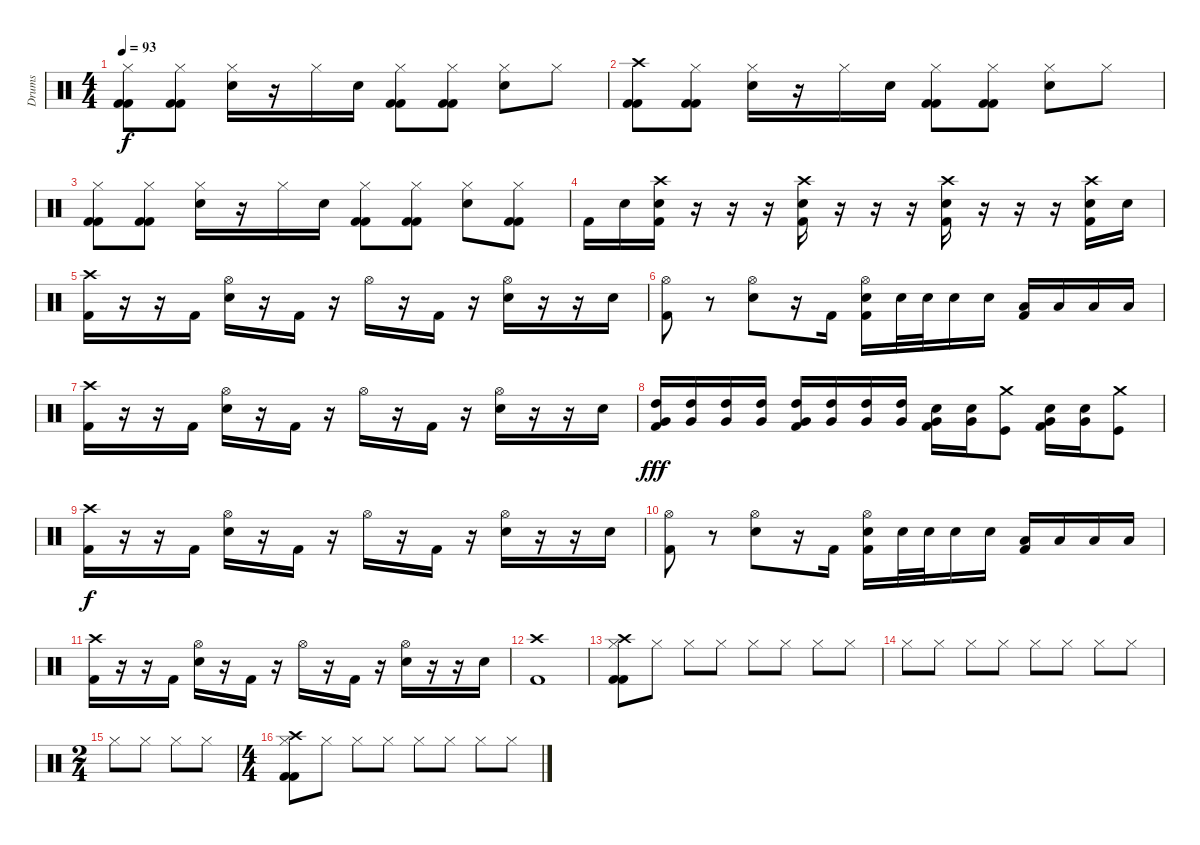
\track ("Drums" "Drums") {instrument percussion}
\staff {score}
\articulation defaults
\ts (4 4)
\tempo 93
\clef neutral
\ks c
("Hi-Hat (closed)" "Kick (hit) 2" "Kick (hit) 2").8{dy f} ("Hi-Hat (closed)" "Kick (hit) 2" "Kick (hit) 2").8 ("Hi-Hat (closed)" "Electric Snare (hit)").16 r.16 "Hi-Hat (closed)".16 "Electric Snare (hit)".16 ("Hi-Hat (closed)" "Kick (hit) 2" "Kick (hit) 2").8 ("Hi-Hat (closed)" "Kick (hit) 2" "Kick (hit) 2").8 ("Hi-Hat (closed)" "Electric Snare (hit)").8 "Hi-Hat (closed)".8 |
("Crash high (hit)" "Kick (hit) 2" "Kick (hit) 2").8 ("Hi-Hat (closed)" "Kick (hit) 2" "Kick (hit) 2").8 ("Hi-Hat (closed)" "Electric Snare (hit)").16 r.16 "Hi-Hat (closed)".16 "Electric Snare (hit)".16 ("Hi-Hat (closed)" "Kick (hit) 2" "Kick (hit) 2").8 ("Hi-Hat (closed)" "Kick (hit) 2" "Kick (hit) 2").8 ("Hi-Hat (closed)" "Electric Snare (hit)").8 "Hi-Hat (closed)".8 |
("Hi-Hat (closed)" "Kick (hit) 2" "Kick (hit) 2").8 ("Hi-Hat (closed)" "Kick (hit) 2" "Kick (hit) 2").8 ("Hi-Hat (closed)" "Electric Snare (hit)").16 r.16 "Hi-Hat (closed)".16 "Electric Snare (hit)".16 ("Hi-Hat (closed)" "Kick (hit) 2" "Kick (hit) 2").8 ("Hi-Hat (closed)" "Kick (hit) 2" "Kick (hit) 2").8 ("Hi-Hat (closed)" "Electric Snare (hit)").8 ("Hi-Hat (closed)" "Kick (hit) 2" "Kick (hit) 2").8 |
"Kick (hit) 2".16 "Electric Snare (hit)".16 ("Crash high (hit)" "Electric Snare (hit)" "Kick (hit) 2").16 r.16 r.16 r.16 ("Crash high (hit)" "Electric Snare (hit)" "Kick (hit) 2").16 r.16 r.16 r.16 ("Crash high (hit)" "Electric Snare (hit)" "Kick (hit) 2").16 r.16 r.16 r.16 ("Crash high (hit)" "Electric Snare (hit)" "Kick (hit) 2").16 "Electric Snare (hit)".16 |
("Crash high (hit)" "Kick (hit) 2").16 r.16 r.16 "Kick (hit) 2".16 ("Hi-Hat (open)" "Electric Snare (hit)").16 r.16 "Kick (hit) 2".16 r.16 "Hi-Hat (open)".16 r.16 "Kick (hit) 2".16 r.16 ("Hi-Hat (open)" "Electric Snare (hit)").16 r.16 r.16 "Electric Snare (hit)".16 |
("Hi-Hat (open)" "Kick (hit) 2").8 r.8 ("Hi-Hat (open)" "Electric Snare (hit)").8 r.16 "Kick (hit) 2".16 ("Hi-Hat (open)" "Electric Snare (hit)" "Kick (hit) 2").16 "Electric Snare (hit)".32 "Electric Snare (hit)".32 "Electric Snare (hit)".16 "Electric Snare (hit)".16 ("Low Tom (hit)" "Kick (hit) 2").16 "Low Tom (hit)".16 "Low Tom (hit)".16 "Low Tom (hit)".16 |
("Crash high (hit)" "Kick (hit) 2").16 r.16 r.16 "Kick (hit) 2".16 ("Hi-Hat (open)" "Electric Snare (hit)").16 r.16 "Kick (hit) 2".16 r.16 "Hi-Hat (open)".16 r.16 "Kick (hit) 2".16 r.16 ("Hi-Hat (open)" "Electric Snare (hit)").16 r.16 r.16 "Electric Snare (hit)".16 |
("High Tom (hit)" "Very Low Tom (hit)" "Kick (hit) 2").16{dy fff} ("High Tom (hit)" "Very Low Tom (hit)").16 ("High Tom (hit)" "Very Low Tom (hit)").16 ("High Tom (hit)" "Very Low Tom (hit)").16 ("High Tom (hit)" "Very Low Tom (hit)" "Kick (hit) 2").16 ("High Tom (hit)" "Very Low Tom (hit)").16 ("High Tom (hit)" "Very Low Tom (hit)").16 ("High Tom (hit)" "Very Low Tom (hit)").16 ("Snare (hit) 2" "Very Low Tom (hit)" "Kick (hit) 2").16 ("Snare (hit) 2" "Very Low Tom (hit)").16 ("Kick (hit)" "Crash medium (hit)").8 ("Snare (hit) 2" "Very Low Tom (hit)" "Kick (hit) 2").16 ("Snare (hit) 2" "Very Low Tom (hit)").16 ("Crash medium (hit)" "Kick (hit)").8 |
("Crash high (hit)" "Kick (hit) 2").16{dy f} r.16 r.16 "Kick (hit) 2".16 ("Hi-Hat (open)" "Electric Snare (hit)").16 r.16 "Kick (hit) 2".16 r.16 "Hi-Hat (open)".16 r.16 "Kick (hit) 2".16 r.16 ("Hi-Hat (open)" "Electric Snare (hit)").16 r.16 r.16 "Electric Snare (hit)".16 |
("Hi-Hat (open)" "Kick (hit) 2").8 r.8 ("Hi-Hat (open)" "Electric Snare (hit)").8 r.16 "Kick (hit) 2".16 ("Hi-Hat (open)" "Electric Snare (hit)" "Kick (hit) 2").16 "Electric Snare (hit)".32 "Electric Snare (hit)".32 "Electric Snare (hit)".16 "Electric Snare (hit)".16 ("Low Tom (hit)" "Kick (hit) 2").16 "Low Tom (hit)".16 "Low Tom (hit)".16 "Low Tom (hit)".16 |
("Crash high (hit)" "Kick (hit) 2").16 r.16 r.16 "Kick (hit) 2".16 ("Hi-Hat (open)" "Electric Snare (hit)").16 r.16 "Kick (hit) 2".16 r.16 "Hi-Hat (open)".16 r.16 "Kick (hit) 2".16 r.16 ("Hi-Hat (open)" "Electric Snare (hit)").16 r.16 r.16 "Electric Snare (hit)".16 |
("Crash high (hit)" "Kick (hit) 2").1 |
("Hi-Hat (closed)" "Crash high (hit)" "Kick (hit) 2" "Kick (hit) 2").8 "Hi-Hat (closed)".8 "Hi-Hat (closed)".8 "Hi-Hat (closed)".8 "Hi-Hat (closed)".8 "Hi-Hat (closed)".8 "Hi-Hat (closed)".8 "Hi-Hat (closed)".8 |
"Hi-Hat (closed)".8 "Hi-Hat (closed)".8 "Hi-Hat (closed)".8 "Hi-Hat (closed)".8 "Hi-Hat (closed)".8 "Hi-Hat (closed)".8 "Hi-Hat (closed)".8 "Hi-Hat (closed)".8 |
\ts (2 4)
"Hi-Hat (closed)".8 "Hi-Hat (closed)".8 "Hi-Hat (closed)".8 "Hi-Hat (closed)".8 |
\ts (4 4)
("Hi-Hat (closed)" "Crash high (hit)" "Kick (hit) 2" "Kick (hit) 2").8 "Hi-Hat (closed)".8 "Hi-Hat (closed)".8 "Hi-Hat (closed)".8 "Hi-Hat (closed)".8 "Hi-Hat (closed)".8 "Hi-Hat (closed)".8 "Hi-Hat (closed)".8
